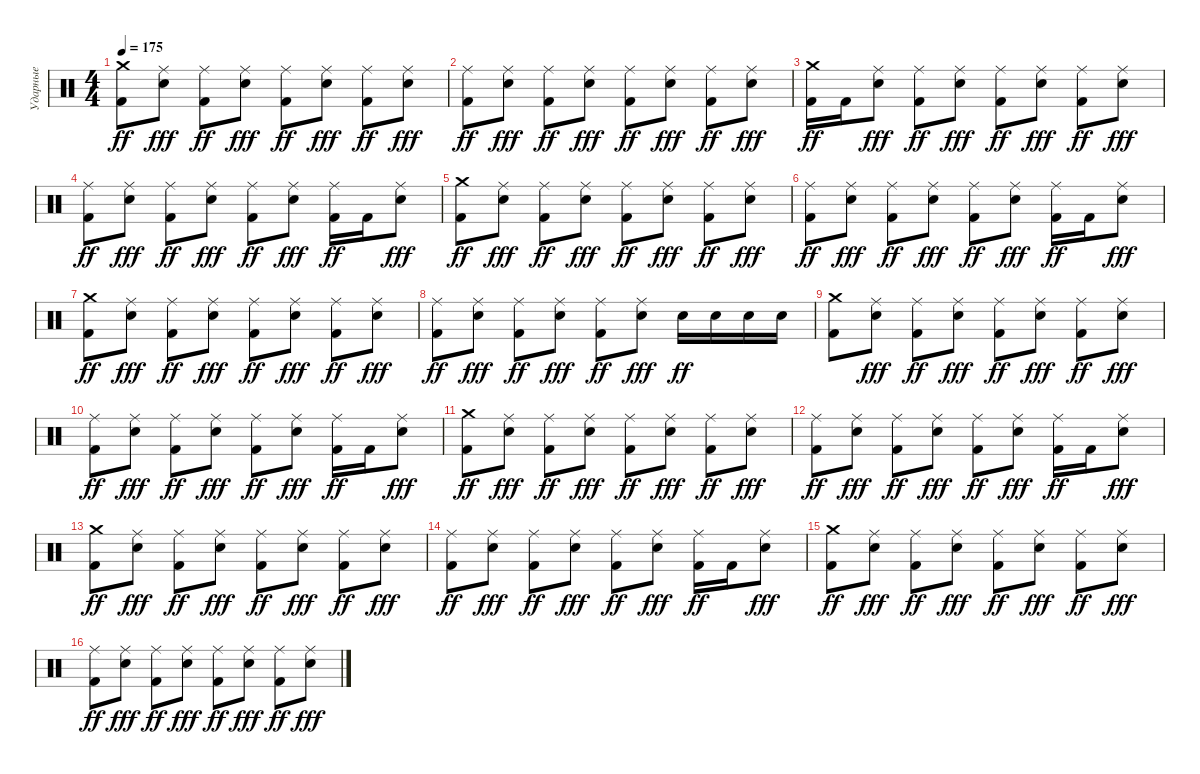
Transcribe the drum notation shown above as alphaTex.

\track ("Ударные" "Ударные") {instrument percussion}
\staff {score}
\articulation defaults
\ts (4 4)
\tempo 175
\clef neutral
\ks c
("Kick (hit) 2" "Crash medium (hit)").8{dy ff} ("Electric Snare (hit)" "Ride (middle)").8{dy fff} ("Kick (hit) 2" "Ride (middle)").8{dy ff} ("Electric Snare (hit)" "Ride (middle)").8{dy fff} ("Kick (hit) 2" "Ride (middle)").8{dy ff} ("Electric Snare (hit)" "Ride (middle)").8{dy fff} ("Kick (hit) 2" "Ride (middle)").8{dy ff} ("Electric Snare (hit)" "Ride (middle)").8{dy fff} |
("Kick (hit) 2" "Ride (middle)").8{dy ff} ("Electric Snare (hit)" "Ride (middle)").8{dy fff} ("Kick (hit) 2" "Ride (middle)").8{dy ff} ("Electric Snare (hit)" "Ride (middle)").8{dy fff} ("Kick (hit) 2" "Ride (middle)").8{dy ff} ("Electric Snare (hit)" "Ride (middle)").8{dy fff} ("Kick (hit) 2" "Ride (middle)").8{dy ff} ("Electric Snare (hit)" "Ride (middle)").8{dy fff} |
("Kick (hit) 2" "Crash medium (hit)").16{dy ff} "Kick (hit) 2".16 ("Electric Snare (hit)" "Ride (middle)").8{dy fff} ("Kick (hit) 2" "Ride (middle)").8{dy ff} ("Electric Snare (hit)" "Ride (middle)").8{dy fff} ("Kick (hit) 2" "Ride (middle)").8{dy ff} ("Electric Snare (hit)" "Ride (middle)").8{dy fff} ("Kick (hit) 2" "Ride (middle)").8{dy ff} ("Electric Snare (hit)" "Ride (middle)").8{dy fff} |
("Kick (hit) 2" "Ride (middle)").8{dy ff} ("Electric Snare (hit)" "Ride (middle)").8{dy fff} ("Kick (hit) 2" "Ride (middle)").8{dy ff} ("Electric Snare (hit)" "Ride (middle)").8{dy fff} ("Kick (hit) 2" "Ride (middle)").8{dy ff} ("Electric Snare (hit)" "Ride (middle)").8{dy fff} ("Kick (hit) 2" "Ride (middle)").16{dy ff} "Kick (hit) 2".16 ("Electric Snare (hit)" "Ride (middle)").8{dy fff} |
("Kick (hit) 2" "Crash medium (hit)").8{dy ff} ("Electric Snare (hit)" "Ride (middle)").8{dy fff} ("Kick (hit) 2" "Ride (middle)").8{dy ff} ("Electric Snare (hit)" "Ride (middle)").8{dy fff} ("Kick (hit) 2" "Ride (middle)").8{dy ff} ("Electric Snare (hit)" "Ride (middle)").8{dy fff} ("Kick (hit) 2" "Ride (middle)").8{dy ff} ("Electric Snare (hit)" "Ride (middle)").8{dy fff} |
("Kick (hit) 2" "Ride (middle)").8{dy ff} ("Electric Snare (hit)" "Ride (middle)").8{dy fff} ("Kick (hit) 2" "Ride (middle)").8{dy ff} ("Electric Snare (hit)" "Ride (middle)").8{dy fff} ("Kick (hit) 2" "Ride (middle)").8{dy ff} ("Electric Snare (hit)" "Ride (middle)").8{dy fff} ("Kick (hit) 2" "Ride (middle)").16{dy ff} "Kick (hit) 2".16 ("Electric Snare (hit)" "Ride (middle)").8{dy fff} |
("Kick (hit) 2" "Crash medium (hit)").8{dy ff} ("Electric Snare (hit)" "Ride (middle)").8{dy fff} ("Kick (hit) 2" "Ride (middle)").8{dy ff} ("Electric Snare (hit)" "Ride (middle)").8{dy fff} ("Kick (hit) 2" "Ride (middle)").8{dy ff} ("Electric Snare (hit)" "Ride (middle)").8{dy fff} ("Kick (hit) 2" "Ride (middle)").8{dy ff} ("Electric Snare (hit)" "Ride (middle)").8{dy fff} |
("Kick (hit) 2" "Ride (middle)").8{dy ff} ("Electric Snare (hit)" "Ride (middle)").8{dy fff} ("Kick (hit) 2" "Ride (middle)").8{dy ff} ("Electric Snare (hit)" "Ride (middle)").8{dy fff} ("Kick (hit) 2" "Ride (middle)").8{dy ff} ("Electric Snare (hit)" "Ride (middle)").8{dy fff} "Electric Snare (hit)".16{dy ff} "Electric Snare (hit)".16 "Electric Snare (hit)".16 "Electric Snare (hit)".16 |
("Kick (hit) 2" "Crash medium (hit)").8 ("Electric Snare (hit)" "Ride (middle)").8{dy fff} ("Kick (hit) 2" "Ride (middle)").8{dy ff} ("Electric Snare (hit)" "Ride (middle)").8{dy fff} ("Kick (hit) 2" "Ride (middle)").8{dy ff} ("Electric Snare (hit)" "Ride (middle)").8{dy fff} ("Kick (hit) 2" "Ride (middle)").8{dy ff} ("Electric Snare (hit)" "Ride (middle)").8{dy fff} |
("Kick (hit) 2" "Ride (middle)").8{dy ff} ("Electric Snare (hit)" "Ride (middle)").8{dy fff} ("Kick (hit) 2" "Ride (middle)").8{dy ff} ("Electric Snare (hit)" "Ride (middle)").8{dy fff} ("Kick (hit) 2" "Ride (middle)").8{dy ff} ("Electric Snare (hit)" "Ride (middle)").8{dy fff} ("Kick (hit) 2" "Ride (middle)").16{dy ff} "Kick (hit) 2".16 ("Electric Snare (hit)" "Ride (middle)").8{dy fff} |
("Kick (hit) 2" "Crash medium (hit)").8{dy ff} ("Electric Snare (hit)" "Ride (middle)").8{dy fff} ("Kick (hit) 2" "Ride (middle)").8{dy ff} ("Electric Snare (hit)" "Ride (middle)").8{dy fff} ("Kick (hit) 2" "Ride (middle)").8{dy ff} ("Electric Snare (hit)" "Ride (middle)").8{dy fff} ("Kick (hit) 2" "Ride (middle)").8{dy ff} ("Electric Snare (hit)" "Ride (middle)").8{dy fff} |
("Kick (hit) 2" "Ride (middle)").8{dy ff} ("Electric Snare (hit)" "Ride (middle)").8{dy fff} ("Kick (hit) 2" "Ride (middle)").8{dy ff} ("Electric Snare (hit)" "Ride (middle)").8{dy fff} ("Kick (hit) 2" "Ride (middle)").8{dy ff} ("Electric Snare (hit)" "Ride (middle)").8{dy fff} ("Kick (hit) 2" "Ride (middle)").16{dy ff} "Kick (hit) 2".16 ("Electric Snare (hit)" "Ride (middle)").8{dy fff} |
("Kick (hit) 2" "Crash medium (hit)").8{dy ff} ("Electric Snare (hit)" "Ride (middle)").8{dy fff} ("Kick (hit) 2" "Ride (middle)").8{dy ff} ("Electric Snare (hit)" "Ride (middle)").8{dy fff} ("Kick (hit) 2" "Ride (middle)").8{dy ff} ("Electric Snare (hit)" "Ride (middle)").8{dy fff} ("Kick (hit) 2" "Ride (middle)").8{dy ff} ("Electric Snare (hit)" "Ride (middle)").8{dy fff} |
("Kick (hit) 2" "Ride (middle)").8{dy ff} ("Electric Snare (hit)" "Ride (middle)").8{dy fff} ("Kick (hit) 2" "Ride (middle)").8{dy ff} ("Electric Snare (hit)" "Ride (middle)").8{dy fff} ("Kick (hit) 2" "Ride (middle)").8{dy ff} ("Electric Snare (hit)" "Ride (middle)").8{dy fff} ("Kick (hit) 2" "Ride (middle)").16{dy ff} "Kick (hit) 2".16 ("Electric Snare (hit)" "Ride (middle)").8{dy fff} |
("Kick (hit) 2" "Crash medium (hit)").8{dy ff} ("Electric Snare (hit)" "Ride (middle)").8{dy fff} ("Kick (hit) 2" "Ride (middle)").8{dy ff} ("Electric Snare (hit)" "Ride (middle)").8{dy fff} ("Kick (hit) 2" "Ride (middle)").8{dy ff} ("Electric Snare (hit)" "Ride (middle)").8{dy fff} ("Kick (hit) 2" "Ride (middle)").8{dy ff} ("Electric Snare (hit)" "Ride (middle)").8{dy fff} |
("Kick (hit) 2" "Ride (middle)").8{dy ff} ("Electric Snare (hit)" "Ride (middle)").8{dy fff} ("Kick (hit) 2" "Ride (middle)").8{dy ff} ("Electric Snare (hit)" "Ride (middle)").8{dy fff} ("Kick (hit) 2" "Ride (middle)").8{dy ff} ("Electric Snare (hit)" "Ride (middle)").8{dy fff} ("Kick (hit) 2" "Ride (middle)").8{dy ff} ("Electric Snare (hit)" "Ride (middle)").8{dy fff}
